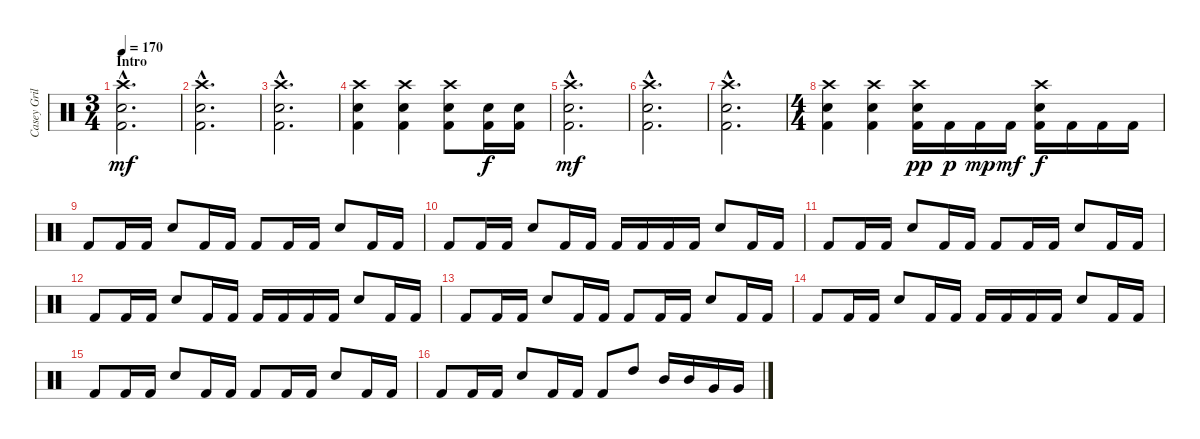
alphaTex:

\track ("Casey Grillo" "Casey Gril") {instrument percussion}
\staff {score}
\articulation defaults
\ts (3 4)
\section ("" "Intro")
\tempo 170
\clef neutral
\ks c
("Kick (hit) 2"{hac} "Snare (hit) 2"{hac} "Crash high (hit)"{hac}).2{d dy mf} |
("Kick (hit) 2"{hac} "Snare (hit) 2"{hac} "Crash high (hit)"{hac}).2{d} |
("Kick (hit) 2"{hac} "Snare (hit) 2"{hac} "Crash high (hit)"{hac}).2{d} |
("Kick (hit) 2" "Snare (hit) 2" "Crash high (hit)").4 ("Kick (hit) 2" "Snare (hit) 2" "Crash high (hit)").4 ("Kick (hit) 2" "Snare (hit) 2" "Crash high (hit)").8 ("Kick (hit) 2" "Snare (hit) 2").16{dy f} ("Kick (hit) 2" "Snare (hit) 2").16 |
("Kick (hit) 2"{hac} "Snare (hit) 2"{hac} "Crash high (hit)"{hac}).2{d dy mf} |
("Kick (hit) 2"{hac} "Snare (hit) 2"{hac} "Crash high (hit)"{hac}).2{d} |
("Kick (hit) 2"{hac} "Snare (hit) 2"{hac} "Crash high (hit)"{hac}).2{d} |
\ts (4 4)
("Kick (hit) 2" "Snare (hit) 2" "Crash high (hit)").4 ("Kick (hit) 2" "Snare (hit) 2" "Crash high (hit)").4 ("Kick (hit) 2" "Snare (hit) 2" "Crash high (hit)").16{dy pp} "Kick (hit) 2".16{dy p} "Kick (hit) 2".16{dy mp} "Kick (hit) 2".16{dy mf} ("Kick (hit) 2" "Snare (hit) 2" "Crash high (hit)").16{dy f} "Kick (hit) 2".16 "Kick (hit) 2".16 "Kick (hit) 2".16 |
"Kick (hit) 2".8 "Kick (hit) 2".16 "Kick (hit) 2".16 "Snare (hit) 2".8 "Kick (hit) 2".16 "Kick (hit) 2".16 "Kick (hit) 2".8 "Kick (hit) 2".16 "Kick (hit) 2".16 "Snare (hit) 2".8 "Kick (hit) 2".16 "Kick (hit) 2".16 |
"Kick (hit) 2".8 "Kick (hit) 2".16 "Kick (hit) 2".16 "Snare (hit) 2".8 "Kick (hit) 2".16 "Kick (hit) 2".16 "Kick (hit) 2".16 "Kick (hit) 2".16 "Kick (hit) 2".16 "Kick (hit) 2".16 "Snare (hit) 2".8 "Kick (hit) 2".16 "Kick (hit) 2".16 |
"Kick (hit) 2".8 "Kick (hit) 2".16 "Kick (hit) 2".16 "Snare (hit) 2".8 "Kick (hit) 2".16 "Kick (hit) 2".16 "Kick (hit) 2".8 "Kick (hit) 2".16 "Kick (hit) 2".16 "Snare (hit) 2".8 "Kick (hit) 2".16 "Kick (hit) 2".16 |
"Kick (hit) 2".8 "Kick (hit) 2".16 "Kick (hit) 2".16 "Snare (hit) 2".8 "Kick (hit) 2".16 "Kick (hit) 2".16 "Kick (hit) 2".16 "Kick (hit) 2".16 "Kick (hit) 2".16 "Kick (hit) 2".16 "Snare (hit) 2".8 "Kick (hit) 2".16 "Kick (hit) 2".16 |
"Kick (hit) 2".8 "Kick (hit) 2".16 "Kick (hit) 2".16 "Snare (hit) 2".8 "Kick (hit) 2".16 "Kick (hit) 2".16 "Kick (hit) 2".8 "Kick (hit) 2".16 "Kick (hit) 2".16 "Snare (hit) 2".8 "Kick (hit) 2".16 "Kick (hit) 2".16 |
"Kick (hit) 2".8 "Kick (hit) 2".16 "Kick (hit) 2".16 "Snare (hit) 2".8 "Kick (hit) 2".16 "Kick (hit) 2".16 "Kick (hit) 2".16 "Kick (hit) 2".16 "Kick (hit) 2".16 "Kick (hit) 2".16 "Snare (hit) 2".8 "Kick (hit) 2".16 "Kick (hit) 2".16 |
"Kick (hit) 2".8 "Kick (hit) 2".16 "Kick (hit) 2".16 "Snare (hit) 2".8 "Kick (hit) 2".16 "Kick (hit) 2".16 "Kick (hit) 2".8 "Kick (hit) 2".16 "Kick (hit) 2".16 "Snare (hit) 2".8 "Kick (hit) 2".16 "Kick (hit) 2".16 |
"Kick (hit) 2".8 "Kick (hit) 2".16 "Kick (hit) 2".16 "Snare (hit) 2".8 "Kick (hit) 2".16 "Kick (hit) 2".16 "Kick (hit) 2".8 "High Tom (hit)".8 "Mid Tom (hit)".16 "Mid Tom (hit)".16 "Very Low Tom (hit)".16 "Very Low Tom (hit)".16
